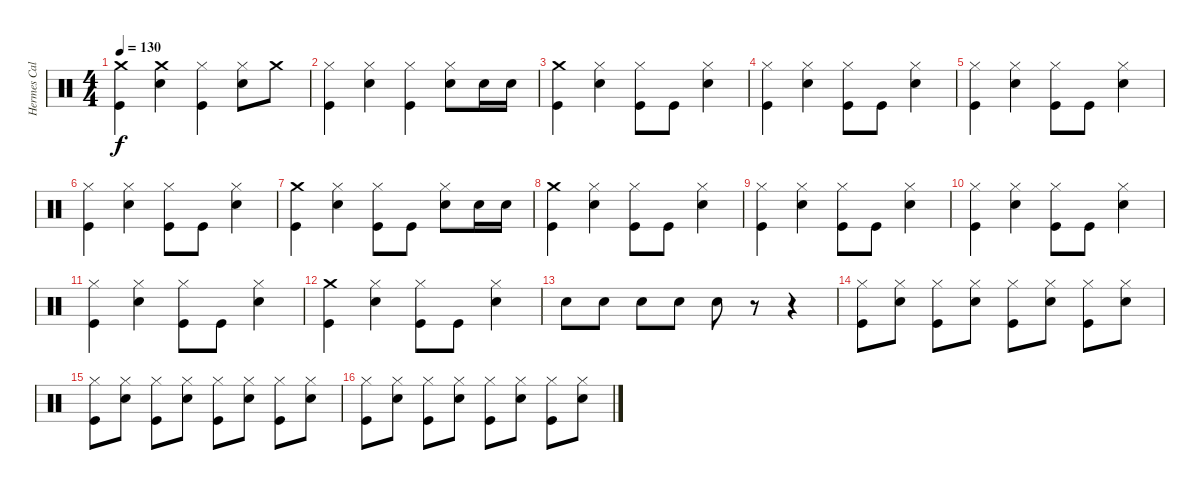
\track ("Hermes Calabria" "Hermes Cal") {instrument percussion}
\staff {score}
\articulation defaults
\ts (4 4)
\tempo 130
\clef neutral
\ks c
("Crash medium (hit)" "Kick (hit)").4{dy f} ("Crash medium (hit)" "Snare (hit) 2").4 ("Hi-Hat (closed)" "Kick (hit)").4 ("Hi-Hat (closed)" "Snare (hit) 2").8 "Crash medium (hit)".8 |
("Hi-Hat (closed)" "Kick (hit)").4 ("Hi-Hat (closed)" "Snare (hit) 2").4 ("Hi-Hat (closed)" "Kick (hit)").4 ("Hi-Hat (closed)" "Snare (hit) 2").8 "Snare (hit) 2".16 "Snare (hit) 2".16 |
("Crash medium (hit)" "Kick (hit)").4 ("Hi-Hat (closed)" "Snare (hit) 2").4 ("Hi-Hat (closed)" "Kick (hit)").8 "Kick (hit)".8 ("Hi-Hat (closed)" "Snare (hit) 2").4 |
("Hi-Hat (closed)" "Kick (hit)").4 ("Hi-Hat (closed)" "Snare (hit) 2").4 ("Hi-Hat (closed)" "Kick (hit)").8 "Kick (hit)".8 ("Hi-Hat (closed)" "Snare (hit) 2").4 |
("Hi-Hat (closed)" "Kick (hit)").4 ("Hi-Hat (closed)" "Snare (hit) 2").4 ("Hi-Hat (closed)" "Kick (hit)").8 "Kick (hit)".8 ("Hi-Hat (closed)" "Snare (hit) 2").4 |
("Hi-Hat (closed)" "Kick (hit)").4 ("Hi-Hat (closed)" "Snare (hit) 2").4 ("Hi-Hat (closed)" "Kick (hit)").8 "Kick (hit)".8 ("Hi-Hat (closed)" "Snare (hit) 2").4 |
("Crash medium (hit)" "Kick (hit)").4 ("Hi-Hat (closed)" "Snare (hit) 2").4 ("Hi-Hat (closed)" "Kick (hit)").8 "Kick (hit)".8 ("Hi-Hat (closed)" "Snare (hit) 2").8 "Snare (hit) 2".16 "Snare (hit) 2".16 |
("Crash medium (hit)" "Kick (hit)").4 ("Hi-Hat (closed)" "Snare (hit) 2").4 ("Hi-Hat (closed)" "Kick (hit)").8 "Kick (hit)".8 ("Hi-Hat (closed)" "Snare (hit) 2").4 |
("Hi-Hat (closed)" "Kick (hit)").4 ("Hi-Hat (closed)" "Snare (hit) 2").4 ("Hi-Hat (closed)" "Kick (hit)").8 "Kick (hit)".8 ("Hi-Hat (closed)" "Snare (hit) 2").4 |
("Hi-Hat (closed)" "Kick (hit)").4 ("Hi-Hat (closed)" "Snare (hit) 2").4 ("Hi-Hat (closed)" "Kick (hit)").8 "Kick (hit)".8 ("Hi-Hat (closed)" "Snare (hit) 2").4 |
("Hi-Hat (closed)" "Kick (hit)").4 ("Hi-Hat (closed)" "Snare (hit) 2").4 ("Hi-Hat (closed)" "Kick (hit)").8 "Kick (hit)".8 ("Hi-Hat (closed)" "Snare (hit) 2").4 |
("Crash medium (hit)" "Kick (hit)").4 ("Hi-Hat (closed)" "Snare (hit) 2").4 ("Hi-Hat (closed)" "Kick (hit)").8 "Kick (hit)".8 ("Hi-Hat (closed)" "Snare (hit) 2").4 |
"Snare (hit) 2".8 "Snare (hit) 2".8 "Snare (hit) 2".8 "Snare (hit) 2".8 "Snare (hit) 2".8 r.8 r.4 |
("Hi-Hat (closed)" "Kick (hit)").8 ("Hi-Hat (closed)" "Snare (hit) 2").8 ("Hi-Hat (closed)" "Kick (hit)").8 ("Hi-Hat (closed)" "Snare (hit) 2").8 ("Hi-Hat (closed)" "Kick (hit)").8 ("Hi-Hat (closed)" "Snare (hit) 2").8 ("Hi-Hat (closed)" "Kick (hit)").8 ("Hi-Hat (closed)" "Snare (hit) 2").8 |
("Hi-Hat (closed)" "Kick (hit)").8 ("Hi-Hat (closed)" "Snare (hit) 2").8 ("Hi-Hat (closed)" "Kick (hit)").8 ("Hi-Hat (closed)" "Snare (hit) 2").8 ("Hi-Hat (closed)" "Kick (hit)").8 ("Hi-Hat (closed)" "Snare (hit) 2").8 ("Hi-Hat (closed)" "Kick (hit)").8 ("Hi-Hat (closed)" "Snare (hit) 2").8 |
("Hi-Hat (closed)" "Kick (hit)").8 ("Hi-Hat (closed)" "Snare (hit) 2").8 ("Hi-Hat (closed)" "Kick (hit)").8 ("Hi-Hat (closed)" "Snare (hit) 2").8 ("Hi-Hat (closed)" "Kick (hit)").8 ("Hi-Hat (closed)" "Snare (hit) 2").8 ("Hi-Hat (closed)" "Kick (hit)").8 ("Hi-Hat (closed)" "Snare (hit) 2").8
